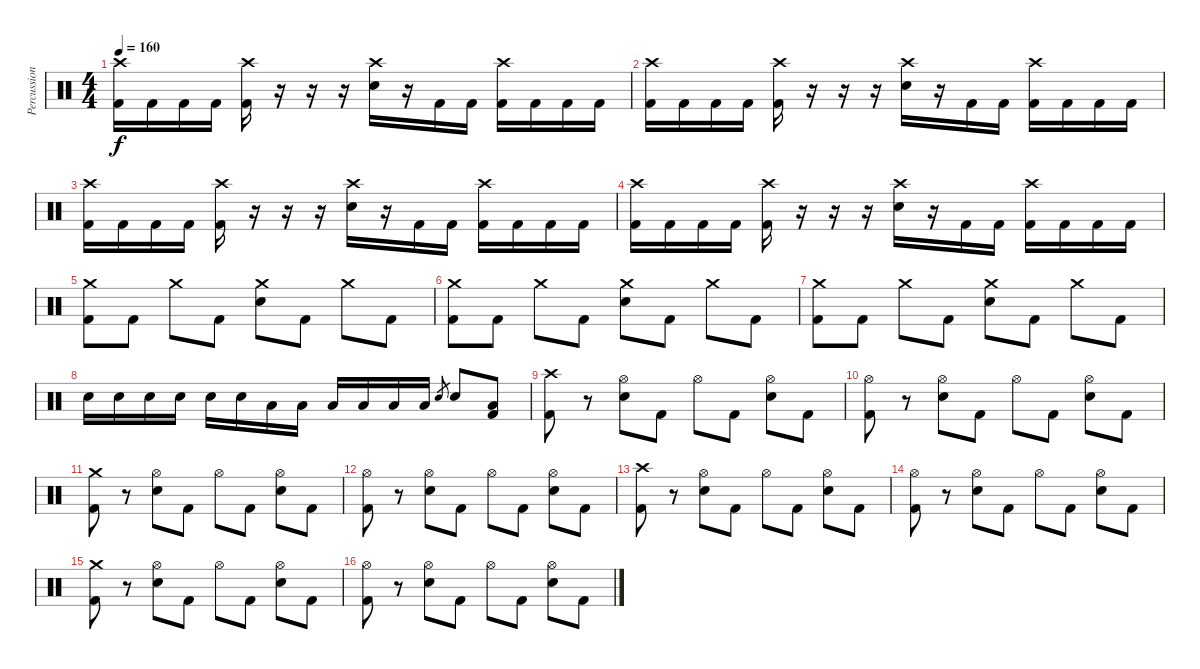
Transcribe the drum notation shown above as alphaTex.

\track ("Percussion" "Percussion") {instrument percussion}
\staff {score}
\articulation defaults
\ts (4 4)
\tempo 160
\clef neutral
\ks c
("Crash high (hit)" "Kick (hit) 2").16{dy f} "Kick (hit) 2".16 "Kick (hit) 2".16 "Kick (hit) 2".16 ("Crash high (hit)" "Kick (hit) 2").16 r.16 r.16 r.16 ("Crash high (hit)" "Electric Snare (hit)").16 r.16 "Kick (hit) 2".16 "Kick (hit) 2".16 ("Crash high (hit)" "Kick (hit) 2").16 "Kick (hit) 2".16 "Kick (hit) 2".16 "Kick (hit) 2".16 |
("Crash high (hit)" "Kick (hit) 2").16 "Kick (hit) 2".16 "Kick (hit) 2".16 "Kick (hit) 2".16 ("Crash high (hit)" "Kick (hit) 2").16 r.16 r.16 r.16 ("Crash high (hit)" "Electric Snare (hit)").16 r.16 "Kick (hit) 2".16 "Kick (hit) 2".16 ("Crash high (hit)" "Kick (hit) 2").16 "Kick (hit) 2".16 "Kick (hit) 2".16 "Kick (hit) 2".16 |
("Crash high (hit)" "Kick (hit) 2").16 "Kick (hit) 2".16 "Kick (hit) 2".16 "Kick (hit) 2".16 ("Crash high (hit)" "Kick (hit) 2").16 r.16 r.16 r.16 ("Crash high (hit)" "Electric Snare (hit)").16 r.16 "Kick (hit) 2".16 "Kick (hit) 2".16 ("Crash high (hit)" "Kick (hit) 2").16 "Kick (hit) 2".16 "Kick (hit) 2".16 "Kick (hit) 2".16 |
("Crash high (hit)" "Kick (hit) 2").16 "Kick (hit) 2".16 "Kick (hit) 2".16 "Kick (hit) 2".16 ("Crash high (hit)" "Kick (hit) 2").16 r.16 r.16 r.16 ("Crash high (hit)" "Electric Snare (hit)").16 r.16 "Kick (hit) 2".16 "Kick (hit) 2".16 ("Crash high (hit)" "Kick (hit) 2").16 "Kick (hit) 2".16 "Kick (hit) 2".16 "Kick (hit) 2".16 |
("Crash medium (hit)" "Kick (hit) 2").8 "Kick (hit) 2".8 "Crash medium (hit)".8 "Kick (hit) 2".8 ("Crash medium (hit)" "Electric Snare (hit)").8 "Kick (hit) 2".8 "Crash medium (hit)".8 "Kick (hit) 2".8 |
("Crash medium (hit)" "Kick (hit) 2").8 "Kick (hit) 2".8 "Crash medium (hit)".8 "Kick (hit) 2".8 ("Crash medium (hit)" "Electric Snare (hit)").8 "Kick (hit) 2".8 "Crash medium (hit)".8 "Kick (hit) 2".8 |
("Crash medium (hit)" "Kick (hit) 2").8 "Kick (hit) 2".8 "Crash medium (hit)".8 "Kick (hit) 2".8 ("Crash medium (hit)" "Electric Snare (hit)").8 "Kick (hit) 2".8 "Crash medium (hit)".8 "Kick (hit) 2".8 |
"Electric Snare (hit)".16 "Electric Snare (hit)".16 "Electric Snare (hit)".16 "Electric Snare (hit)".16 "Electric Snare (hit)".16 "Electric Snare (hit)".16 "Low Tom (hit)".16 "Low Tom (hit)".16 "Low Tom (hit)".16 "Low Tom (hit)".16 "Low Tom (hit)".16 "Low Tom (hit)".16 "Electric Snare (hit)".8{gr} "Electric Snare (hit)".8 ("Low Tom (hit)" "Kick (hit) 2").8 |
("Crash high (hit)" "Kick (hit) 2").8 r.8 ("Hi-Hat (open)" "Electric Snare (hit)").8 "Kick (hit) 2".8 "Hi-Hat (open)".8 "Kick (hit) 2".8 ("Hi-Hat (open)" "Electric Snare (hit)").8 "Kick (hit) 2".8 |
("Hi-Hat (open)" "Kick (hit) 2").8 r.8 ("Hi-Hat (open)" "Electric Snare (hit)").8 "Kick (hit) 2".8 "Hi-Hat (open)".8 "Kick (hit) 2".8 ("Hi-Hat (open)" "Electric Snare (hit)").8 "Kick (hit) 2".8 |
("Crash medium (hit)" "Kick (hit) 2").8 r.8 ("Hi-Hat (open)" "Electric Snare (hit)").8 "Kick (hit) 2".8 "Hi-Hat (open)".8 "Kick (hit) 2".8 ("Hi-Hat (open)" "Electric Snare (hit)").8 "Kick (hit) 2".8 |
("Hi-Hat (open)" "Kick (hit) 2").8 r.8 ("Hi-Hat (open)" "Electric Snare (hit)").8 "Kick (hit) 2".8 "Hi-Hat (open)".8 "Kick (hit) 2".8 ("Hi-Hat (open)" "Electric Snare (hit)").8 "Kick (hit) 2".8 |
("Crash high (hit)" "Kick (hit) 2").8 r.8 ("Hi-Hat (open)" "Electric Snare (hit)").8 "Kick (hit) 2".8 "Hi-Hat (open)".8 "Kick (hit) 2".8 ("Hi-Hat (open)" "Electric Snare (hit)").8 "Kick (hit) 2".8 |
("Hi-Hat (open)" "Kick (hit) 2").8 r.8 ("Hi-Hat (open)" "Electric Snare (hit)").8 "Kick (hit) 2".8 "Hi-Hat (open)".8 "Kick (hit) 2".8 ("Hi-Hat (open)" "Electric Snare (hit)").8 "Kick (hit) 2".8 |
("Crash medium (hit)" "Kick (hit) 2").8 r.8 ("Hi-Hat (open)" "Electric Snare (hit)").8 "Kick (hit) 2".8 "Hi-Hat (open)".8 "Kick (hit) 2".8 ("Hi-Hat (open)" "Electric Snare (hit)").8 "Kick (hit) 2".8 |
("Hi-Hat (open)" "Kick (hit) 2").8 r.8 ("Hi-Hat (open)" "Electric Snare (hit)").8 "Kick (hit) 2".8 "Hi-Hat (open)".8 "Kick (hit) 2".8 ("Hi-Hat (open)" "Electric Snare (hit)").8 "Kick (hit) 2".8
